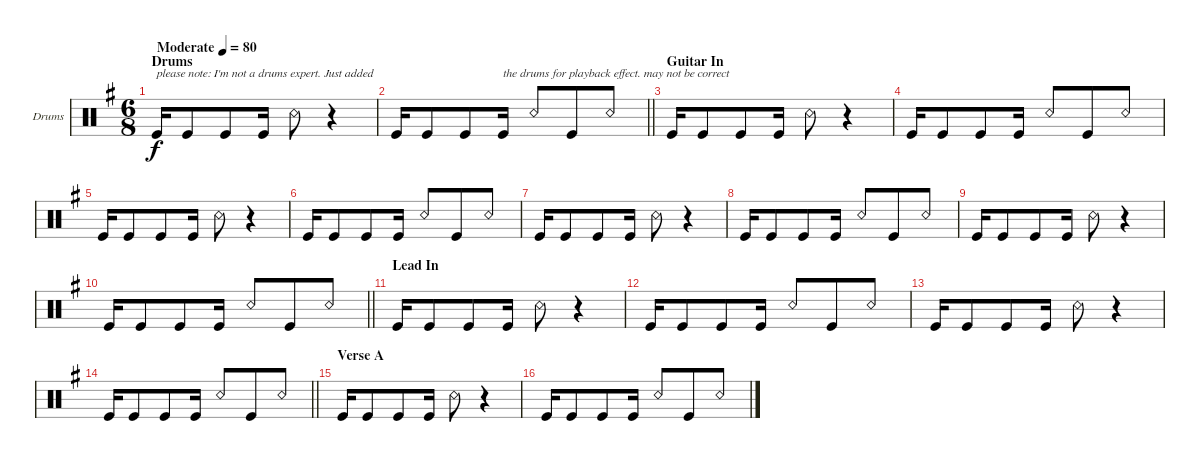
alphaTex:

\bracketExtendMode groupsimilarinstruments
\firstSystemTrackNameOrientation horizontal
\otherSystemsTrackNameOrientation horizontal
\track ("Drumkit" "Drums") {instrument percussion}
\staff {score}
\articulation defaults
\ts (6 8)
\beaming (8 3 3)
\section ("" "Drums")
\tempo (80 "Moderate")
\clef neutral
\ks eminor "Kick (hit)".16{txt "please note: I'm not a drums expert. Just added" dy f} "Kick (hit)".8 "Kick (hit)".8 "Kick (hit)".16 "Snare (rim shot)".8
r.4 |
\barLineRight lightlight "Kick (hit)".16 "Kick (hit)".8 "Kick (hit)".8 "Kick (hit)".16{txt "the drums for playback effect. may not be correct"} "Snare (rim shot)".8 "Kick (hit)".8 "Snare (rim shot)".8
|
\section ("" "Guitar In")
"Kick (hit)".16 "Kick (hit)".8 "Kick (hit)".8 "Kick (hit)".16 "Snare (rim shot)".8 r.4 |
"Kick (hit)".16 "Kick (hit)".8 "Kick (hit)".8 "Kick (hit)".16 "Snare (rim shot)".8 "Kick (hit)".8 "Snare (rim shot)".8 |
"Kick (hit)".16 "Kick (hit)".8 "Kick (hit)".8 "Kick (hit)".16 "Snare (rim shot)".8 r.4 |
"Kick (hit)".16 "Kick (hit)".8 "Kick (hit)".8 "Kick (hit)".16 "Snare (rim shot)".8 "Kick (hit)".8 "Snare (rim shot)".8 |
"Kick (hit)".16 "Kick (hit)".8 "Kick (hit)".8 "Kick (hit)".16 "Snare (rim shot)".8 r.4 |
"Kick (hit)".16 "Kick (hit)".8 "Kick (hit)".8 "Kick (hit)".16 "Snare (rim shot)".8 "Kick (hit)".8 "Snare (rim shot)".8 |
"Kick (hit)".16 "Kick (hit)".8 "Kick (hit)".8 "Kick (hit)".16 "Snare (rim shot)".8 r.4 |
\barLineRight lightlight "Kick (hit)".16 "Kick (hit)".8 "Kick (hit)".8 "Kick (hit)".16 "Snare (rim shot)".8 "Kick (hit)".8 "Snare (rim shot)".8
|
\section ("" "Lead In")
"Kick (hit)".16 "Kick (hit)".8 "Kick (hit)".8 "Kick (hit)".16 "Snare (rim shot)".8 r.4 |
"Kick (hit)".16 "Kick (hit)".8 "Kick (hit)".8 "Kick (hit)".16 "Snare (rim shot)".8 "Kick (hit)".8 "Snare (rim shot)".8 |
"Kick (hit)".16 "Kick (hit)".8 "Kick (hit)".8 "Kick (hit)".16 "Snare (rim shot)".8 r.4 |
\barLineRight lightlight "Kick (hit)".16 "Kick (hit)".8 "Kick (hit)".8 "Kick (hit)".16 "Snare (rim shot)".8 "Kick (hit)".8 "Snare (rim shot)".8
|
\section ("" "Verse A")
"Kick (hit)".16 "Kick (hit)".8 "Kick (hit)".8 "Kick (hit)".16 "Snare (rim shot)".8 r.4 |
"Kick (hit)".16 "Kick (hit)".8 "Kick (hit)".8 "Kick (hit)".16 "Snare (rim shot)".8 "Kick (hit)".8 "Snare (rim shot)".8
